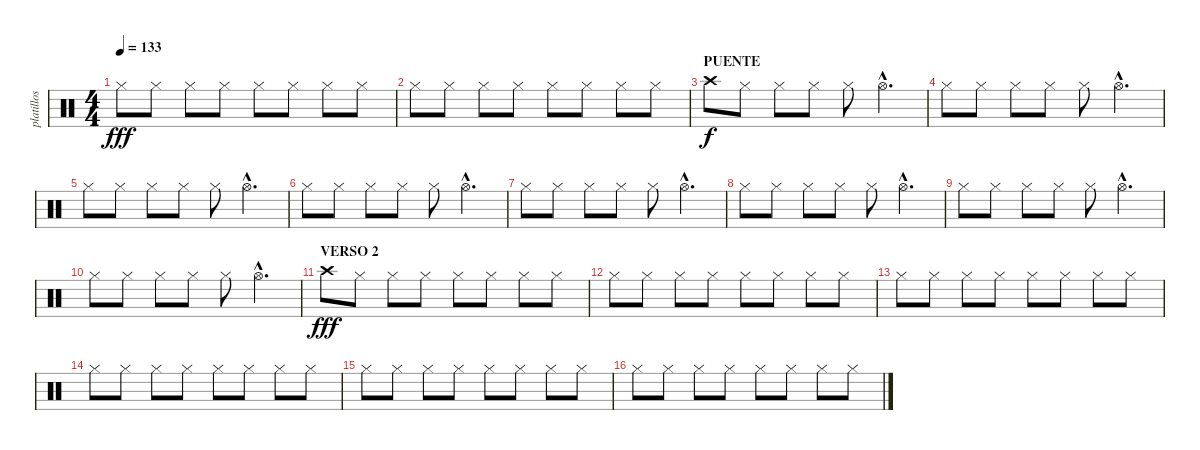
\track ("platillos" "platillos") {instrument percussion}
\staff {score}
\articulation defaults
\ts (4 4)
\tempo 133
\clef neutral
\ks c "Hi-Hat (closed)".8{dy fff} "Hi-Hat (closed)".8 "Hi-Hat (closed)".8 "Hi-Hat (closed)".8 "Hi-Hat (closed)".8 "Hi-Hat (closed)".8 "Hi-Hat (closed)".8 "Hi-Hat (closed)".8
|
"Hi-Hat (closed)".8 "Hi-Hat (closed)".8 "Hi-Hat (closed)".8 "Hi-Hat (closed)".8 "Hi-Hat (closed)".8 "Hi-Hat (closed)".8 "Hi-Hat (closed)".8 "Hi-Hat (closed)".8 |
\section ("" "PUENTE")
"Crash high (hit)".8{dy f} "Hi-Hat (closed)".8 "Hi-Hat (closed)".8 "Hi-Hat (closed)".8 "Hi-Hat (closed)".8 "Hi-Hat (open)"{hac}.4{d} |
"Hi-Hat (closed)".8 "Hi-Hat (closed)".8 "Hi-Hat (closed)".8 "Hi-Hat (closed)".8 "Hi-Hat (closed)".8 "Hi-Hat (open)"{hac}.4{d} |
"Hi-Hat (closed)".8 "Hi-Hat (closed)".8 "Hi-Hat (closed)".8 "Hi-Hat (closed)".8 "Hi-Hat (closed)".8 "Hi-Hat (open)"{hac}.4{d} |
"Hi-Hat (closed)".8 "Hi-Hat (closed)".8 "Hi-Hat (closed)".8 "Hi-Hat (closed)".8 "Hi-Hat (closed)".8 "Hi-Hat (open)"{hac}.4{d} |
"Hi-Hat (closed)".8 "Hi-Hat (closed)".8 "Hi-Hat (closed)".8 "Hi-Hat (closed)".8 "Hi-Hat (closed)".8 "Hi-Hat (open)"{hac}.4{d} |
"Hi-Hat (closed)".8 "Hi-Hat (closed)".8 "Hi-Hat (closed)".8 "Hi-Hat (closed)".8 "Hi-Hat (closed)".8 "Hi-Hat (open)"{hac}.4{d} |
"Hi-Hat (closed)".8 "Hi-Hat (closed)".8 "Hi-Hat (closed)".8 "Hi-Hat (closed)".8 "Hi-Hat (closed)".8 "Hi-Hat (open)"{hac}.4{d} |
"Hi-Hat (closed)".8 "Hi-Hat (closed)".8 "Hi-Hat (closed)".8 "Hi-Hat (closed)".8 "Hi-Hat (closed)".8 "Hi-Hat (open)"{hac}.4{d} |
\section ("" "VERSO 2")
"Crash high (hit)".8{dy fff} "Hi-Hat (closed)".8 "Hi-Hat (closed)".8 "Hi-Hat (closed)".8 "Hi-Hat (closed)".8 "Hi-Hat (closed)".8 "Hi-Hat (closed)".8 "Hi-Hat (closed)".8 |
"Hi-Hat (closed)".8 "Hi-Hat (closed)".8 "Hi-Hat (closed)".8 "Hi-Hat (closed)".8 "Hi-Hat (closed)".8 "Hi-Hat (closed)".8 "Hi-Hat (closed)".8 "Hi-Hat (closed)".8 |
"Hi-Hat (closed)".8 "Hi-Hat (closed)".8 "Hi-Hat (closed)".8 "Hi-Hat (closed)".8 "Hi-Hat (closed)".8 "Hi-Hat (closed)".8 "Hi-Hat (closed)".8 "Hi-Hat (closed)".8 |
"Hi-Hat (closed)".8 "Hi-Hat (closed)".8 "Hi-Hat (closed)".8 "Hi-Hat (closed)".8 "Hi-Hat (closed)".8 "Hi-Hat (closed)".8 "Hi-Hat (closed)".8 "Hi-Hat (closed)".8 |
"Hi-Hat (closed)".8 "Hi-Hat (closed)".8 "Hi-Hat (closed)".8 "Hi-Hat (closed)".8 "Hi-Hat (closed)".8 "Hi-Hat (closed)".8 "Hi-Hat (closed)".8 "Hi-Hat (closed)".8 |
"Hi-Hat (closed)".8 "Hi-Hat (closed)".8 "Hi-Hat (closed)".8 "Hi-Hat (closed)".8 "Hi-Hat (closed)".8 "Hi-Hat (closed)".8 "Hi-Hat (closed)".8 "Hi-Hat (closed)".8
